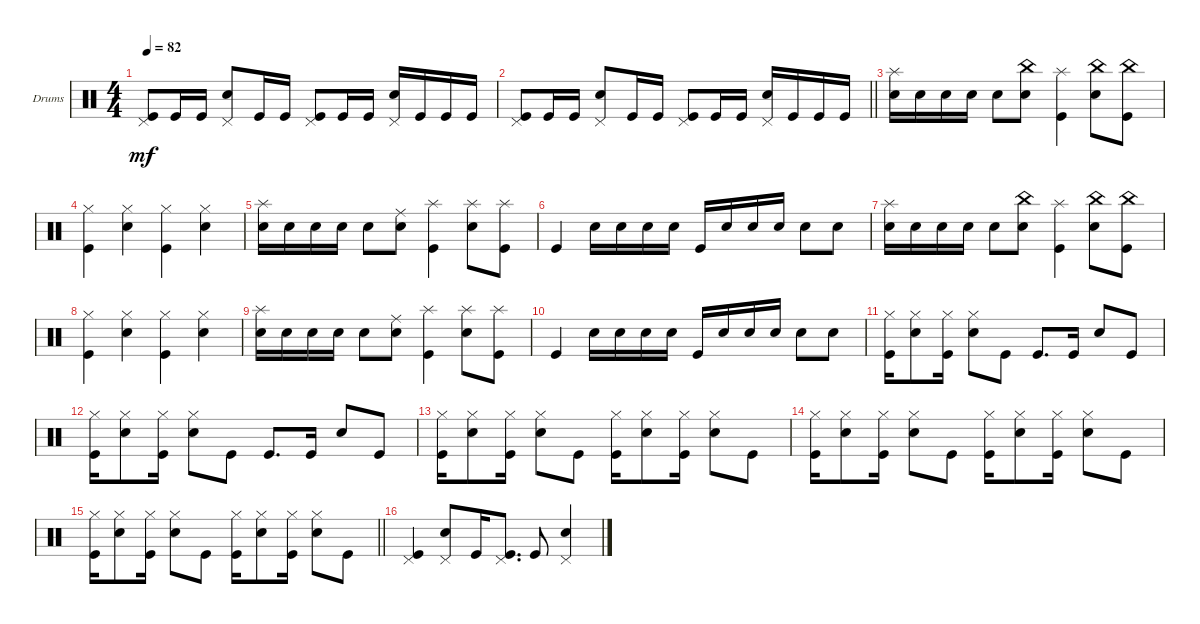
\bracketExtendMode groupsimilarinstruments
\firstSystemTrackNameOrientation horizontal
\otherSystemsTrackNameOrientation horizontal
\track ("Drumkit" "Drums") {multiBarRest instrument percussion}
\staff {score}
\articulation defaults
\ts (4 4)
\tempo 82
\clef neutral
\ks c
("Kick (hit)" "Pedal Hi-Hat (hit)").8{dy mf} "Kick (hit)".16 "Kick (hit)".16 ("Snare (hit) 2" "Pedal Hi-Hat (hit)").8 "Kick (hit)".16 "Kick (hit)".16 ("Kick (hit)" "Pedal Hi-Hat (hit)").8 "Kick (hit)".16 "Kick (hit)".16 ("Pedal Hi-Hat (hit)" "Snare (hit) 2").16 "Kick (hit)".16 "Kick (hit)".16 "Kick (hit)".16 |
\barLineRight lightlight
("Kick (hit)" "Pedal Hi-Hat (hit)").8 "Kick (hit)".16 "Kick (hit)".16 ("Snare (hit) 2" "Pedal Hi-Hat (hit)").8 "Kick (hit)".16 "Kick (hit)".16 ("Kick (hit)" "Pedal Hi-Hat (hit)").8 "Kick (hit)".16 "Kick (hit)".16 ("Pedal Hi-Hat (hit)" "Snare (hit) 2").16 "Kick (hit)".16 "Kick (hit)".16 "Kick (hit)".16 |
("Snare (hit) 2" "Splash (hit)").16 "Snare (hit) 2".16 "Snare (hit) 2".16 "Snare (hit) 2".16 "Snare (hit) 2".8 ("Snare (hit) 2" "China (hit)").8 ("Splash (hit)" "Kick (hit)").4 ("Snare (hit) 2" "China (hit)").8 ("Kick (hit)" "China (hit)").8 |
("Kick (hit)" "Hi-Hat (closed)").4 ("Snare (hit) 2" "Hi-Hat (closed)").4 ("Kick (hit)" "Hi-Hat (closed)").4 ("Snare (hit) 2" "Hi-Hat (closed)").4 |
("Snare (hit) 2" "Splash (hit)").16 "Snare (hit) 2".16 "Snare (hit) 2".16 "Snare (hit) 2".16 "Snare (hit) 2".8 ("Snare (hit) 2" "Ride (middle)").8 ("Splash (hit)" "Kick (hit)").4 ("Snare (hit) 2" "Splash (hit)").8 ("Kick (hit)" "Splash (hit)").8 |
"Kick (hit)".4 "Snare (hit) 2".16 "Snare (hit) 2".16 "Snare (hit) 2".16 "Snare (hit) 2".16 "Kick (hit)".16 "Snare (hit) 2".16 "Snare (hit) 2".16 "Snare (hit) 2".16 "Snare (hit) 2".8 "Snare (hit) 2".8 |
("Snare (hit) 2" "Splash (hit)").16 "Snare (hit) 2".16 "Snare (hit) 2".16 "Snare (hit) 2".16 "Snare (hit) 2".8 ("Snare (hit) 2" "China (hit)").8 ("Splash (hit)" "Kick (hit)").4 ("Snare (hit) 2" "China (hit)").8 ("Kick (hit)" "China (hit)").8 |
("Kick (hit)" "Hi-Hat (closed)").4 ("Snare (hit) 2" "Hi-Hat (closed)").4 ("Kick (hit)" "Hi-Hat (closed)").4 ("Snare (hit) 2" "Hi-Hat (closed)").4 |
("Snare (hit) 2" "Splash (hit)").16 "Snare (hit) 2".16 "Snare (hit) 2".16 "Snare (hit) 2".16 "Snare (hit) 2".8 ("Snare (hit) 2" "Ride (middle)").8 ("Splash (hit)" "Kick (hit)").4 ("Snare (hit) 2" "Splash (hit)").8 ("Kick (hit)" "Splash (hit)").8 |
"Kick (hit)".4 "Snare (hit) 2".16 "Snare (hit) 2".16 "Snare (hit) 2".16 "Snare (hit) 2".16 "Kick (hit)".16 "Snare (hit) 2".16 "Snare (hit) 2".16 "Snare (hit) 2".16 "Snare (hit) 2".8 "Snare (hit) 2".8 |
("Kick (hit)" "Hi-Hat (closed)").16 ("Snare (hit) 2" "Hi-Hat (closed)").8 ("Kick (hit)" "Hi-Hat (closed)").16 ("Hi-Hat (closed)" "Snare (hit) 2").8 "Kick (hit)".8 "Kick (hit)".8{d} "Kick (hit)".16 "Snare (hit) 2".8 "Kick (hit)".8 |
("Kick (hit)" "Hi-Hat (closed)").16 ("Snare (hit) 2" "Hi-Hat (closed)").8 ("Kick (hit)" "Hi-Hat (closed)").16 ("Hi-Hat (closed)" "Snare (hit) 2").8 "Kick (hit)".8 "Kick (hit)".8{d} "Kick (hit)".16 "Snare (hit) 2".8 "Kick (hit)".8 |
("Kick (hit)" "Hi-Hat (closed)").16 ("Snare (hit) 2" "Hi-Hat (closed)").8 ("Kick (hit)" "Hi-Hat (closed)").16 ("Hi-Hat (closed)" "Snare (hit) 2").8 "Kick (hit)".8 ("Kick (hit)" "Hi-Hat (closed)").16 ("Snare (hit) 2" "Hi-Hat (closed)").8 ("Kick (hit)" "Hi-Hat (closed)").16 ("Hi-Hat (closed)" "Snare (hit) 2").8 "Kick (hit)".8 |
("Kick (hit)" "Hi-Hat (closed)").16 ("Snare (hit) 2" "Hi-Hat (closed)").8 ("Kick (hit)" "Hi-Hat (closed)").16 ("Hi-Hat (closed)" "Snare (hit) 2").8 "Kick (hit)".8 ("Kick (hit)" "Hi-Hat (closed)").16 ("Snare (hit) 2" "Hi-Hat (closed)").8 ("Kick (hit)" "Hi-Hat (closed)").16 ("Hi-Hat (closed)" "Snare (hit) 2").8 "Kick (hit)".8 |
\barLineRight lightlight
("Kick (hit)" "Hi-Hat (closed)").16 ("Snare (hit) 2" "Hi-Hat (closed)").8 ("Kick (hit)" "Hi-Hat (closed)").16 ("Hi-Hat (closed)" "Snare (hit) 2").8 "Kick (hit)".8 ("Kick (hit)" "Hi-Hat (closed)").16 ("Snare (hit) 2" "Hi-Hat (closed)").8 ("Kick (hit)" "Hi-Hat (closed)").16 ("Hi-Hat (closed)" "Snare (hit) 2").8 "Kick (hit)".8 |
("Kick (hit)" "Pedal Hi-Hat (hit)").4 ("Snare (hit) 2" "Pedal Hi-Hat (hit)").8 "Kick (hit)".16 ("Kick (hit)" "Pedal Hi-Hat (hit)").8{d} "Kick (hit)".8 ("Snare (hit) 2" "Pedal Hi-Hat (hit)").4
